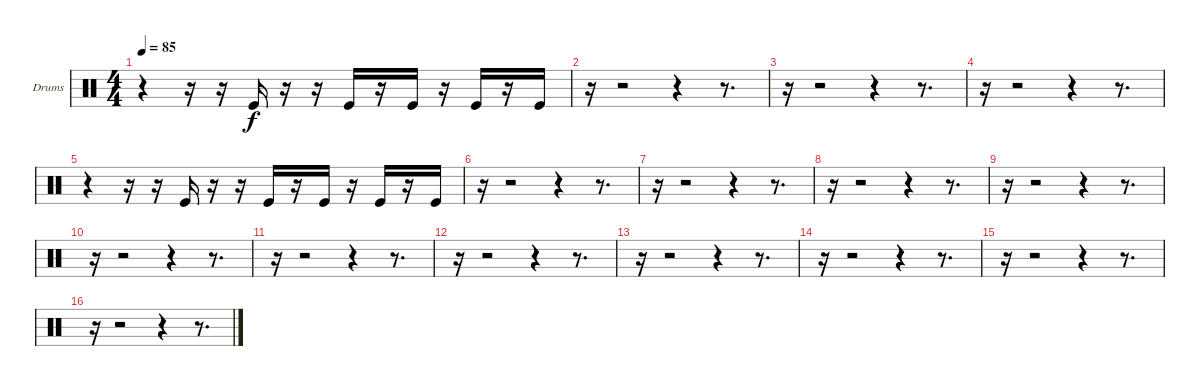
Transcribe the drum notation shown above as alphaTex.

\bracketExtendMode groupsimilarinstruments
\firstSystemTrackNameOrientation horizontal
\otherSystemsTrackNameOrientation horizontal
\track ("Drumkit" "Drums") {instrument percussion}
\staff {score}
\articulation defaults
\ts (4 4)
\tempo 85
\clef neutral
\ks c
r.4{dy f} r.16 r.16 "Kick (hit)".16 r.16 r.16 "Kick (hit)".16 r.16 "Kick (hit)".16 r.16 "Kick (hit)".16 r.16 "Kick (hit)".16 |
r.16 r.2 r.4 r.8{d} |
r.16 r.2 r.4 r.8{d} |
r.16 r.2 r.4 r.8{d} |
r.4 r.16 r.16 "Kick (hit)".16 r.16 r.16 "Kick (hit)".16 r.16 "Kick (hit)".16 r.16 "Kick (hit)".16 r.16 "Kick (hit)".16 |
r.16 r.2 r.4 r.8{d} |
r.16 r.2 r.4 r.8{d} |
r.16 r.2 r.4 r.8{d} |
r.16 r.2 r.4 r.8{d} |
r.16 r.2 r.4 r.8{d} |
r.16 r.2 r.4 r.8{d} |
r.16 r.2 r.4 r.8{d} |
r.16 r.2 r.4 r.8{d} |
r.16 r.2 r.4 r.8{d} |
r.16 r.2 r.4 r.8{d} |
r.16 r.2 r.4 r.8{d}
